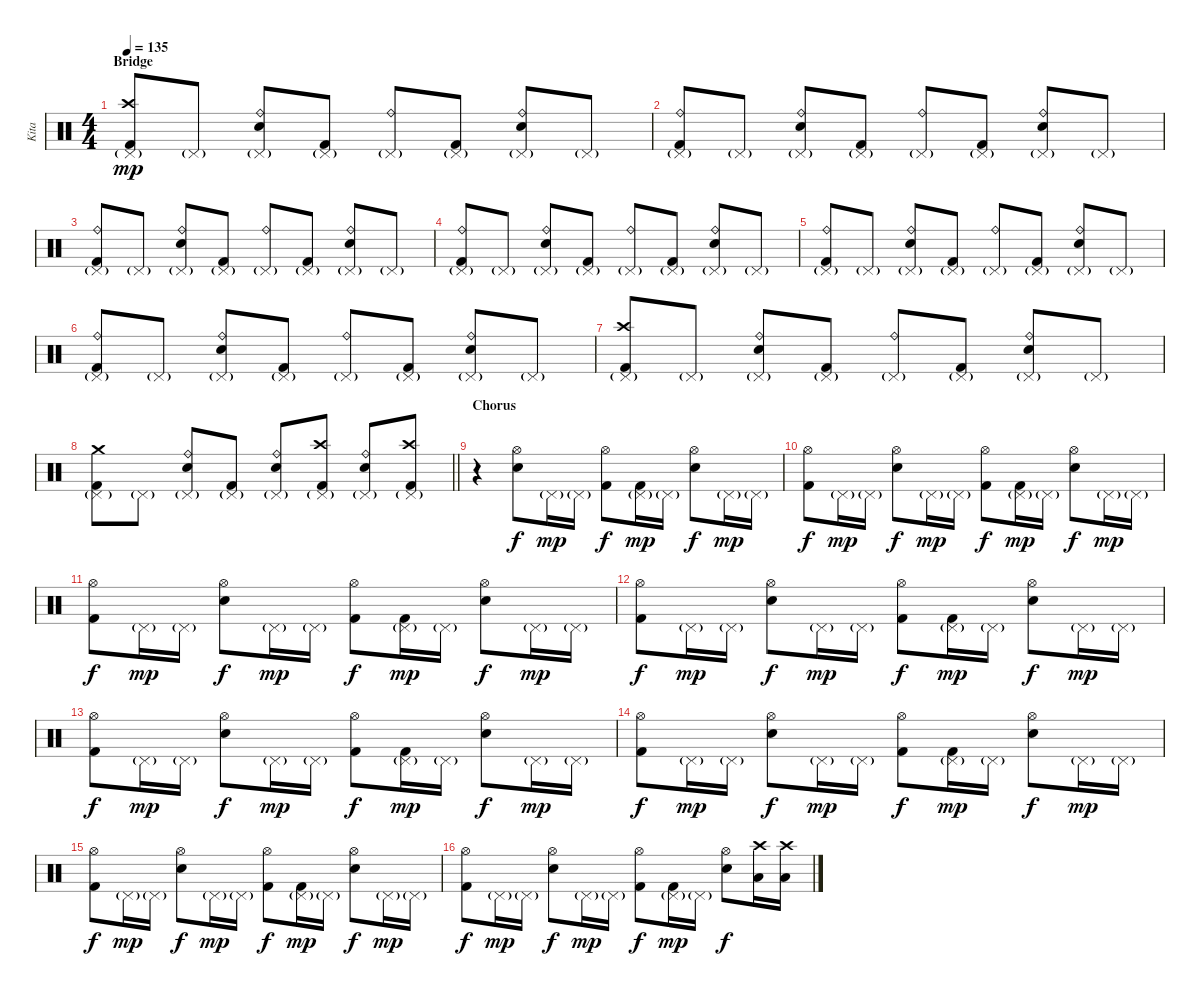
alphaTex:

\track ("Kita" "Kita") {instrument percussion}
\staff {score}
\articulation defaults
\ts (4 4)
\section ("" "Bridge")
\tempo 135
\clef neutral
\ks c
("Pedal Hi-Hat (hit)"{g} "Crash high (hit)" "Kick (hit) 2").8{dy mp} "Pedal Hi-Hat (hit)"{g}.8 ("Pedal Hi-Hat (hit)"{g} "Ride (bell)" "Snare (hit) 2").8 ("Pedal Hi-Hat (hit)"{g} "Kick (hit) 2").8 ("Pedal Hi-Hat (hit)"{g} "Ride (bell)").8 ("Pedal Hi-Hat (hit)"{g} "Kick (hit) 2").8 ("Pedal Hi-Hat (hit)"{g} "Ride (bell)" "Snare (hit) 2").8 "Pedal Hi-Hat (hit)"{g}.8 |
("Pedal Hi-Hat (hit)"{g} "Ride (bell)" "Kick (hit) 2").8 "Pedal Hi-Hat (hit)"{g}.8 ("Pedal Hi-Hat (hit)"{g} "Ride (bell)" "Snare (hit) 2").8 ("Pedal Hi-Hat (hit)"{g} "Kick (hit) 2").8 ("Pedal Hi-Hat (hit)"{g} "Ride (bell)").8 ("Pedal Hi-Hat (hit)"{g} "Kick (hit) 2").8 ("Pedal Hi-Hat (hit)"{g} "Ride (bell)" "Snare (hit) 2").8 "Pedal Hi-Hat (hit)"{g}.8 |
("Pedal Hi-Hat (hit)"{g} "Ride (bell)" "Kick (hit) 2").8 "Pedal Hi-Hat (hit)"{g}.8 ("Pedal Hi-Hat (hit)"{g} "Ride (bell)" "Snare (hit) 2").8 ("Pedal Hi-Hat (hit)"{g} "Kick (hit) 2").8 ("Pedal Hi-Hat (hit)"{g} "Ride (bell)").8 ("Pedal Hi-Hat (hit)"{g} "Kick (hit) 2").8 ("Pedal Hi-Hat (hit)"{g} "Ride (bell)" "Snare (hit) 2").8 "Pedal Hi-Hat (hit)"{g}.8 |
("Pedal Hi-Hat (hit)"{g} "Ride (bell)" "Kick (hit) 2").8 "Pedal Hi-Hat (hit)"{g}.8 ("Pedal Hi-Hat (hit)"{g} "Ride (bell)" "Snare (hit) 2").8 ("Pedal Hi-Hat (hit)"{g} "Kick (hit) 2").8 ("Pedal Hi-Hat (hit)"{g} "Ride (bell)").8 ("Pedal Hi-Hat (hit)"{g} "Kick (hit) 2").8 ("Pedal Hi-Hat (hit)"{g} "Ride (bell)" "Snare (hit) 2").8 "Pedal Hi-Hat (hit)"{g}.8 |
("Pedal Hi-Hat (hit)"{g} "Ride (bell)" "Kick (hit) 2").8 "Pedal Hi-Hat (hit)"{g}.8 ("Pedal Hi-Hat (hit)"{g} "Ride (bell)" "Snare (hit) 2").8 ("Pedal Hi-Hat (hit)"{g} "Kick (hit) 2").8 ("Pedal Hi-Hat (hit)"{g} "Ride (bell)").8 ("Pedal Hi-Hat (hit)"{g} "Kick (hit) 2").8 ("Pedal Hi-Hat (hit)"{g} "Ride (bell)" "Snare (hit) 2").8 "Pedal Hi-Hat (hit)"{g}.8 |
("Pedal Hi-Hat (hit)"{g} "Ride (bell)" "Kick (hit) 2").8 "Pedal Hi-Hat (hit)"{g}.8 ("Pedal Hi-Hat (hit)"{g} "Ride (bell)" "Snare (hit) 2").8 ("Pedal Hi-Hat (hit)"{g} "Kick (hit) 2").8 ("Pedal Hi-Hat (hit)"{g} "Ride (bell)").8 ("Pedal Hi-Hat (hit)"{g} "Kick (hit) 2").8 ("Pedal Hi-Hat (hit)"{g} "Ride (bell)" "Snare (hit) 2").8 "Pedal Hi-Hat (hit)"{g}.8 |
("Pedal Hi-Hat (hit)"{g} "Crash high (hit)" "Kick (hit) 2").8 "Pedal Hi-Hat (hit)"{g}.8 ("Pedal Hi-Hat (hit)"{g} "Ride (bell)" "Snare (hit) 2").8 ("Pedal Hi-Hat (hit)"{g} "Kick (hit) 2").8 ("Pedal Hi-Hat (hit)"{g} "Ride (bell)").8 ("Pedal Hi-Hat (hit)"{g} "Kick (hit) 2").8 ("Pedal Hi-Hat (hit)"{g} "Ride (bell)" "Snare (hit) 2").8 "Pedal Hi-Hat (hit)"{g}.8 |
\barLineRight lightlight
("Pedal Hi-Hat (hit)"{g} "Crash medium (hit)" "Kick (hit) 2").8 "Pedal Hi-Hat (hit)"{g}.8 ("Pedal Hi-Hat (hit)"{g} "Ride (bell)" "Snare (hit) 2").8 ("Pedal Hi-Hat (hit)"{g} "Kick (hit) 2").8 ("Pedal Hi-Hat (hit)"{g} "Ride (bell)" "Snare (hit) 2").8 ("Pedal Hi-Hat (hit)"{g} "Crash high (hit)" "Kick (hit) 2").8 ("Pedal Hi-Hat (hit)"{g} "Ride (bell)" "Snare (hit) 2").8 ("Pedal Hi-Hat (hit)"{g} "Crash high (hit)" "Kick (hit) 2").8 |
\section ("" "Chorus")
r.4 ("Hi-Hat (open)" "Snare (hit) 2").8{dy f} "Pedal Hi-Hat (hit)"{g}.16{dy mp} "Pedal Hi-Hat (hit)"{g}.16 ("Hi-Hat (open)" "Kick (hit) 2").8{dy f} ("Pedal Hi-Hat (hit)"{g} "Kick (hit) 2").16{dy mp} "Pedal Hi-Hat (hit)"{g}.16 ("Hi-Hat (open)" "Snare (hit) 2").8{dy f} "Pedal Hi-Hat (hit)"{g}.16{dy mp} "Pedal Hi-Hat (hit)"{g}.16 |
("Hi-Hat (open)" "Kick (hit) 2").8{dy f} "Pedal Hi-Hat (hit)"{g}.16{dy mp} "Pedal Hi-Hat (hit)"{g}.16 ("Hi-Hat (open)" "Snare (hit) 2").8{dy f} "Pedal Hi-Hat (hit)"{g}.16{dy mp} "Pedal Hi-Hat (hit)"{g}.16 ("Hi-Hat (open)" "Kick (hit) 2").8{dy f} ("Pedal Hi-Hat (hit)"{g} "Kick (hit) 2").16{dy mp} "Pedal Hi-Hat (hit)"{g}.16 ("Hi-Hat (open)" "Snare (hit) 2").8{dy f} "Pedal Hi-Hat (hit)"{g}.16{dy mp} "Pedal Hi-Hat (hit)"{g}.16 |
("Hi-Hat (open)" "Kick (hit) 2").8{dy f} "Pedal Hi-Hat (hit)"{g}.16{dy mp} "Pedal Hi-Hat (hit)"{g}.16 ("Hi-Hat (open)" "Snare (hit) 2").8{dy f} "Pedal Hi-Hat (hit)"{g}.16{dy mp} "Pedal Hi-Hat (hit)"{g}.16 ("Hi-Hat (open)" "Kick (hit) 2").8{dy f} ("Pedal Hi-Hat (hit)"{g} "Kick (hit) 2").16{dy mp} "Pedal Hi-Hat (hit)"{g}.16 ("Hi-Hat (open)" "Snare (hit) 2").8{dy f} "Pedal Hi-Hat (hit)"{g}.16{dy mp} "Pedal Hi-Hat (hit)"{g}.16 |
("Hi-Hat (open)" "Kick (hit) 2").8{dy f} "Pedal Hi-Hat (hit)"{g}.16{dy mp} "Pedal Hi-Hat (hit)"{g}.16 ("Hi-Hat (open)" "Snare (hit) 2").8{dy f} "Pedal Hi-Hat (hit)"{g}.16{dy mp} "Pedal Hi-Hat (hit)"{g}.16 ("Hi-Hat (open)" "Kick (hit) 2").8{dy f} ("Pedal Hi-Hat (hit)"{g} "Kick (hit) 2").16{dy mp} "Pedal Hi-Hat (hit)"{g}.16 ("Hi-Hat (open)" "Snare (hit) 2").8{dy f} "Pedal Hi-Hat (hit)"{g}.16{dy mp} "Pedal Hi-Hat (hit)"{g}.16 |
("Hi-Hat (open)" "Kick (hit) 2").8{dy f} "Pedal Hi-Hat (hit)"{g}.16{dy mp} "Pedal Hi-Hat (hit)"{g}.16 ("Hi-Hat (open)" "Snare (hit) 2").8{dy f} "Pedal Hi-Hat (hit)"{g}.16{dy mp} "Pedal Hi-Hat (hit)"{g}.16 ("Hi-Hat (open)" "Kick (hit) 2").8{dy f} ("Pedal Hi-Hat (hit)"{g} "Kick (hit) 2").16{dy mp} "Pedal Hi-Hat (hit)"{g}.16 ("Hi-Hat (open)" "Snare (hit) 2").8{dy f} "Pedal Hi-Hat (hit)"{g}.16{dy mp} "Pedal Hi-Hat (hit)"{g}.16 |
("Hi-Hat (open)" "Kick (hit) 2").8{dy f} "Pedal Hi-Hat (hit)"{g}.16{dy mp} "Pedal Hi-Hat (hit)"{g}.16 ("Hi-Hat (open)" "Snare (hit) 2").8{dy f} "Pedal Hi-Hat (hit)"{g}.16{dy mp} "Pedal Hi-Hat (hit)"{g}.16 ("Hi-Hat (open)" "Kick (hit) 2").8{dy f} ("Pedal Hi-Hat (hit)"{g} "Kick (hit) 2").16{dy mp} "Pedal Hi-Hat (hit)"{g}.16 ("Hi-Hat (open)" "Snare (hit) 2").8{dy f} "Pedal Hi-Hat (hit)"{g}.16{dy mp} "Pedal Hi-Hat (hit)"{g}.16 |
("Hi-Hat (open)" "Kick (hit) 2").8{dy f} "Pedal Hi-Hat (hit)"{g}.16{dy mp} "Pedal Hi-Hat (hit)"{g}.16 ("Hi-Hat (open)" "Snare (hit) 2").8{dy f} "Pedal Hi-Hat (hit)"{g}.16{dy mp} "Pedal Hi-Hat (hit)"{g}.16 ("Hi-Hat (open)" "Kick (hit) 2").8{dy f} ("Pedal Hi-Hat (hit)"{g} "Kick (hit) 2").16{dy mp} "Pedal Hi-Hat (hit)"{g}.16 ("Hi-Hat (open)" "Snare (hit) 2").8{dy f} "Pedal Hi-Hat (hit)"{g}.16{dy mp} "Pedal Hi-Hat (hit)"{g}.16 |
("Hi-Hat (open)" "Kick (hit) 2").8{dy f} "Pedal Hi-Hat (hit)"{g}.16{dy mp} "Pedal Hi-Hat (hit)"{g}.16 ("Hi-Hat (open)" "Snare (hit) 2").8{dy f} "Pedal Hi-Hat (hit)"{g}.16{dy mp} "Pedal Hi-Hat (hit)"{g}.16 ("Hi-Hat (open)" "Kick (hit) 2").8{dy f} ("Pedal Hi-Hat (hit)"{g} "Kick (hit) 2").16{dy mp} "Pedal Hi-Hat (hit)"{g}.16 ("Hi-Hat (open)" "Snare (hit) 2").8{dy f} ("Crash high (hit)" "Low Tom (hit)").16 ("Crash high (hit)" "Low Tom (hit)").16
